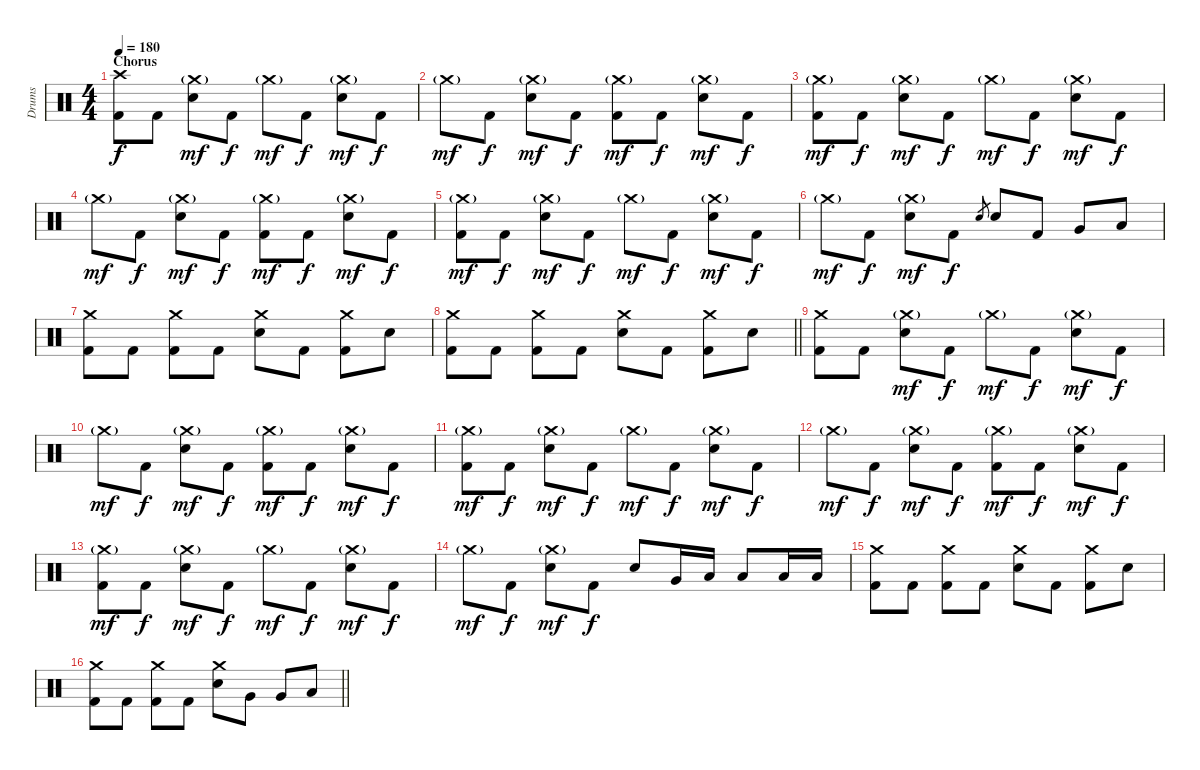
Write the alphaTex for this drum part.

\track ("Drums" "Drums") {instrument percussion}
\staff {score}
\articulation defaults
\ts (4 4)
\section ("" "Chorus")
\tempo 180
\clef neutral
\ks c
("Crash high (hit)" "Kick (hit) 2").8{dy f} "Kick (hit) 2".8 ("Crash medium (hit)"{g} "Electric Snare (hit)").8{dy mf} "Kick (hit) 2".8{dy f} "Crash medium (hit)"{g}.8{dy mf} "Kick (hit) 2".8{dy f} ("Crash medium (hit)"{g} "Electric Snare (hit)").8{dy mf} "Kick (hit) 2".8{dy f} |
"Crash medium (hit)"{g}.8{dy mf} "Kick (hit) 2".8{dy f} ("Crash medium (hit)"{g} "Electric Snare (hit)").8{dy mf} "Kick (hit) 2".8{dy f} ("Crash medium (hit)"{g} "Kick (hit) 2").8{dy mf} "Kick (hit) 2".8{dy f} ("Crash medium (hit)"{g} "Electric Snare (hit)").8{dy mf} "Kick (hit) 2".8{dy f} |
("Crash medium (hit)"{g} "Kick (hit) 2").8{dy mf} "Kick (hit) 2".8{dy f} ("Crash medium (hit)"{g} "Electric Snare (hit)").8{dy mf} "Kick (hit) 2".8{dy f} "Crash medium (hit)"{g}.8{dy mf} "Kick (hit) 2".8{dy f} ("Crash medium (hit)"{g} "Electric Snare (hit)").8{dy mf} "Kick (hit) 2".8{dy f} |
"Crash medium (hit)"{g}.8{dy mf} "Kick (hit) 2".8{dy f} ("Crash medium (hit)"{g} "Electric Snare (hit)").8{dy mf} "Kick (hit) 2".8{dy f} ("Crash medium (hit)"{g} "Kick (hit) 2").8{dy mf} "Kick (hit) 2".8{dy f} ("Crash medium (hit)"{g} "Electric Snare (hit)").8{dy mf} "Kick (hit) 2".8{dy f} |
("Crash medium (hit)"{g} "Kick (hit) 2").8{dy mf} "Kick (hit) 2".8{dy f} ("Crash medium (hit)"{g} "Electric Snare (hit)").8{dy mf} "Kick (hit) 2".8{dy f} "Crash medium (hit)"{g}.8{dy mf} "Kick (hit) 2".8{dy f} ("Crash medium (hit)"{g} "Electric Snare (hit)").8{dy mf} "Kick (hit) 2".8{dy f} |
"Crash medium (hit)"{g}.8{dy mf} "Kick (hit) 2".8{dy f} ("Crash medium (hit)"{g} "Electric Snare (hit)").8{dy mf} "Kick (hit) 2".8{dy f} "Electric Snare (hit)".8{gr} "Electric Snare (hit)".8 "Kick (hit) 2".8 "Very Low Tom (hit)".8 "Low Floor Tom (hit)".8 |
("Crash medium (hit)" "Kick (hit) 2").8 "Kick (hit) 2".8 ("Crash medium (hit)" "Kick (hit) 2").8 "Kick (hit) 2".8 ("Crash medium (hit)" "Electric Snare (hit)").8 "Kick (hit) 2".8 ("Crash medium (hit)" "Kick (hit) 2").8 "Electric Snare (hit)".8 |
\barLineRight lightlight
("Crash medium (hit)" "Kick (hit) 2").8 "Kick (hit) 2".8 ("Crash medium (hit)" "Kick (hit) 2").8 "Kick (hit) 2".8 ("Crash medium (hit)" "Electric Snare (hit)").8 "Kick (hit) 2".8 ("Crash medium (hit)" "Kick (hit) 2").8 "Electric Snare (hit)".8 |
("Crash medium (hit)" "Kick (hit) 2").8 "Kick (hit) 2".8 ("Crash medium (hit)"{g} "Electric Snare (hit)").8{dy mf} "Kick (hit) 2".8{dy f} "Crash medium (hit)"{g}.8{dy mf} "Kick (hit) 2".8{dy f} ("Crash medium (hit)"{g} "Electric Snare (hit)").8{dy mf} "Kick (hit) 2".8{dy f} |
"Crash medium (hit)"{g}.8{dy mf} "Kick (hit) 2".8{dy f} ("Crash medium (hit)"{g} "Electric Snare (hit)").8{dy mf} "Kick (hit) 2".8{dy f} ("Crash medium (hit)"{g} "Kick (hit) 2").8{dy mf} "Kick (hit) 2".8{dy f} ("Crash medium (hit)"{g} "Electric Snare (hit)").8{dy mf} "Kick (hit) 2".8{dy f} |
("Crash medium (hit)"{g} "Kick (hit) 2").8{dy mf} "Kick (hit) 2".8{dy f} ("Crash medium (hit)"{g} "Electric Snare (hit)").8{dy mf} "Kick (hit) 2".8{dy f} "Crash medium (hit)"{g}.8{dy mf} "Kick (hit) 2".8{dy f} ("Crash medium (hit)"{g} "Electric Snare (hit)").8{dy mf} "Kick (hit) 2".8{dy f} |
"Crash medium (hit)"{g}.8{dy mf} "Kick (hit) 2".8{dy f} ("Crash medium (hit)"{g} "Electric Snare (hit)").8{dy mf} "Kick (hit) 2".8{dy f} ("Crash medium (hit)"{g} "Kick (hit) 2").8{dy mf} "Kick (hit) 2".8{dy f} ("Crash medium (hit)"{g} "Electric Snare (hit)").8{dy mf} "Kick (hit) 2".8{dy f} |
("Crash medium (hit)"{g} "Kick (hit) 2").8{dy mf} "Kick (hit) 2".8{dy f} ("Crash medium (hit)"{g} "Electric Snare (hit)").8{dy mf} "Kick (hit) 2".8{dy f} "Crash medium (hit)"{g}.8{dy mf} "Kick (hit) 2".8{dy f} ("Crash medium (hit)"{g} "Electric Snare (hit)").8{dy mf} "Kick (hit) 2".8{dy f} |
"Crash medium (hit)"{g}.8{dy mf} "Kick (hit) 2".8{dy f} ("Crash medium (hit)"{g} "Electric Snare (hit)").8{dy mf} "Kick (hit) 2".8{dy f} "Electric Snare (hit)".8 "Very Low Tom (hit)".16 "Low Tom (hit)".16 "Low Floor Tom (hit)".8 "Low Floor Tom (hit)".16 "Low Floor Tom (hit)".16 |
("Crash medium (hit)" "Kick (hit) 2").8 "Kick (hit) 2".8 ("Crash medium (hit)" "Kick (hit) 2").8 "Kick (hit) 2".8 ("Crash medium (hit)" "Electric Snare (hit)").8 "Kick (hit) 2".8 ("Crash medium (hit)" "Kick (hit) 2").8 "Electric Snare (hit)".8 |
\barLineRight lightlight
("Crash medium (hit)" "Kick (hit) 2").8 "Kick (hit) 2".8 ("Crash medium (hit)" "Kick (hit) 2").8 "Kick (hit) 2".8 ("Crash medium (hit)" "Electric Snare (hit)").8 "Very Low Tom (hit)".8 "Very Low Tom (hit)".8 "Low Floor Tom (hit)".8
